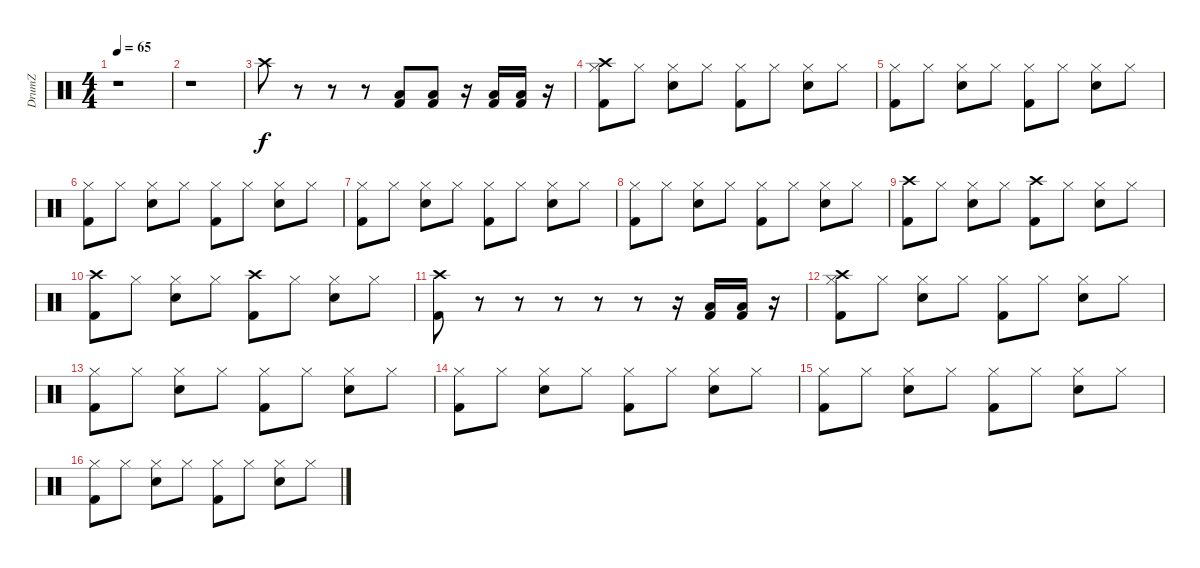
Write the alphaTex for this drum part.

\track ("DrumZ" "DrumZ") {instrument percussion}
\staff {score}
\articulation defaults
\ts (4 4)
\tempo 65
\clef neutral
\ks c
r.1{dy f} |
r.1 |
"Crash high (hit)".8 r.8 r.8 r.8 ("Low Tom (hit)" "Kick (hit) 2").8 ("Low Tom (hit)" "Kick (hit) 2").8 r.16 ("Low Tom (hit)" "Kick (hit) 2").16 ("Low Tom (hit)" "Kick (hit) 2").16 r.16 |
("Hi-Hat (closed)" "Crash high (hit)" "Kick (hit) 2").8 "Hi-Hat (closed)".8 ("Hi-Hat (closed)" "Electric Snare (hit)").8 "Hi-Hat (closed)".8 ("Hi-Hat (closed)" "Kick (hit) 2").8 "Hi-Hat (closed)".8 ("Hi-Hat (closed)" "Electric Snare (hit)").8 "Hi-Hat (closed)".8 |
("Hi-Hat (closed)" "Kick (hit) 2").8 "Hi-Hat (closed)".8 ("Hi-Hat (closed)" "Electric Snare (hit)").8 "Hi-Hat (closed)".8 ("Hi-Hat (closed)" "Kick (hit) 2").8 "Hi-Hat (closed)".8 ("Hi-Hat (closed)" "Electric Snare (hit)").8 "Hi-Hat (closed)".8 |
("Hi-Hat (closed)" "Kick (hit) 2").8 "Hi-Hat (closed)".8 ("Hi-Hat (closed)" "Electric Snare (hit)").8 "Hi-Hat (closed)".8 ("Hi-Hat (closed)" "Kick (hit) 2").8 "Hi-Hat (closed)".8 ("Hi-Hat (closed)" "Electric Snare (hit)").8 "Hi-Hat (closed)".8 |
("Hi-Hat (closed)" "Kick (hit) 2").8 "Hi-Hat (closed)".8 ("Hi-Hat (closed)" "Electric Snare (hit)").8 "Hi-Hat (closed)".8 ("Hi-Hat (closed)" "Kick (hit) 2").8 "Hi-Hat (closed)".8 ("Hi-Hat (closed)" "Electric Snare (hit)").8 "Hi-Hat (closed)".8 |
("Hi-Hat (closed)" "Kick (hit) 2").8 "Hi-Hat (closed)".8 ("Hi-Hat (closed)" "Electric Snare (hit)").8 "Hi-Hat (closed)".8 ("Hi-Hat (closed)" "Kick (hit) 2").8 "Hi-Hat (closed)".8 ("Hi-Hat (closed)" "Electric Snare (hit)").8 "Hi-Hat (closed)".8 |
("Crash high (hit)" "Kick (hit) 2").8 "Hi-Hat (closed)".8 ("Hi-Hat (closed)" "Electric Snare (hit)").8 "Hi-Hat (closed)".8 ("Crash high (hit)" "Kick (hit) 2").8 "Hi-Hat (closed)".8 ("Hi-Hat (closed)" "Electric Snare (hit)").8 "Hi-Hat (closed)".8 |
("Crash high (hit)" "Kick (hit) 2").8 "Hi-Hat (closed)".8 ("Hi-Hat (closed)" "Electric Snare (hit)").8 "Hi-Hat (closed)".8 ("Crash high (hit)" "Kick (hit) 2").8 "Hi-Hat (closed)".8 ("Hi-Hat (closed)" "Electric Snare (hit)").8 "Hi-Hat (closed)".8 |
("Crash high (hit)" "Kick (hit) 2").8 r.8 r.8 r.8 r.8 r.8 r.16 ("Low Tom (hit)" "Kick (hit) 2").16 ("Low Tom (hit)" "Kick (hit) 2").16 r.16 |
("Hi-Hat (closed)" "Crash high (hit)" "Kick (hit) 2").8 "Hi-Hat (closed)".8 ("Hi-Hat (closed)" "Electric Snare (hit)").8 "Hi-Hat (closed)".8 ("Hi-Hat (closed)" "Kick (hit) 2").8 "Hi-Hat (closed)".8 ("Hi-Hat (closed)" "Electric Snare (hit)").8 "Hi-Hat (closed)".8 |
("Hi-Hat (closed)" "Kick (hit) 2").8 "Hi-Hat (closed)".8 ("Hi-Hat (closed)" "Electric Snare (hit)").8 "Hi-Hat (closed)".8 ("Hi-Hat (closed)" "Kick (hit) 2").8 "Hi-Hat (closed)".8 ("Hi-Hat (closed)" "Electric Snare (hit)").8 "Hi-Hat (closed)".8 |
("Hi-Hat (closed)" "Kick (hit) 2").8 "Hi-Hat (closed)".8 ("Hi-Hat (closed)" "Electric Snare (hit)").8 "Hi-Hat (closed)".8 ("Hi-Hat (closed)" "Kick (hit) 2").8 "Hi-Hat (closed)".8 ("Hi-Hat (closed)" "Electric Snare (hit)").8 "Hi-Hat (closed)".8 |
("Hi-Hat (closed)" "Kick (hit) 2").8 "Hi-Hat (closed)".8 ("Hi-Hat (closed)" "Electric Snare (hit)").8 "Hi-Hat (closed)".8 ("Hi-Hat (closed)" "Kick (hit) 2").8 "Hi-Hat (closed)".8 ("Hi-Hat (closed)" "Electric Snare (hit)").8 "Hi-Hat (closed)".8 |
("Hi-Hat (closed)" "Kick (hit) 2").8 "Hi-Hat (closed)".8 ("Hi-Hat (closed)" "Electric Snare (hit)").8 "Hi-Hat (closed)".8 ("Hi-Hat (closed)" "Kick (hit) 2").8 "Hi-Hat (closed)".8 ("Hi-Hat (closed)" "Electric Snare (hit)").8 "Hi-Hat (closed)".8
